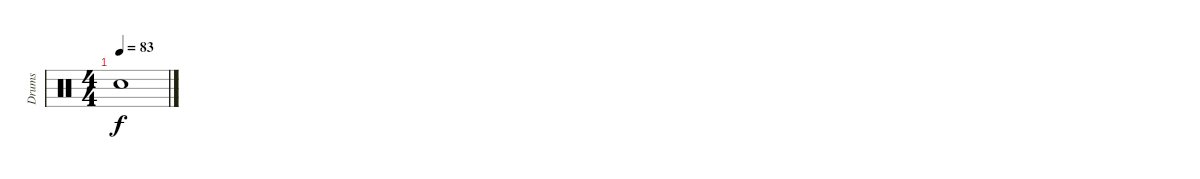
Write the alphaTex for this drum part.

\track ("Drums" "Drums") {instrument percussion}
\staff {score}
\articulation defaults
\ts (4 4)
\tempo 83
\clef neutral
\ks c "Snare (hit)"{t}.1{dy f}
